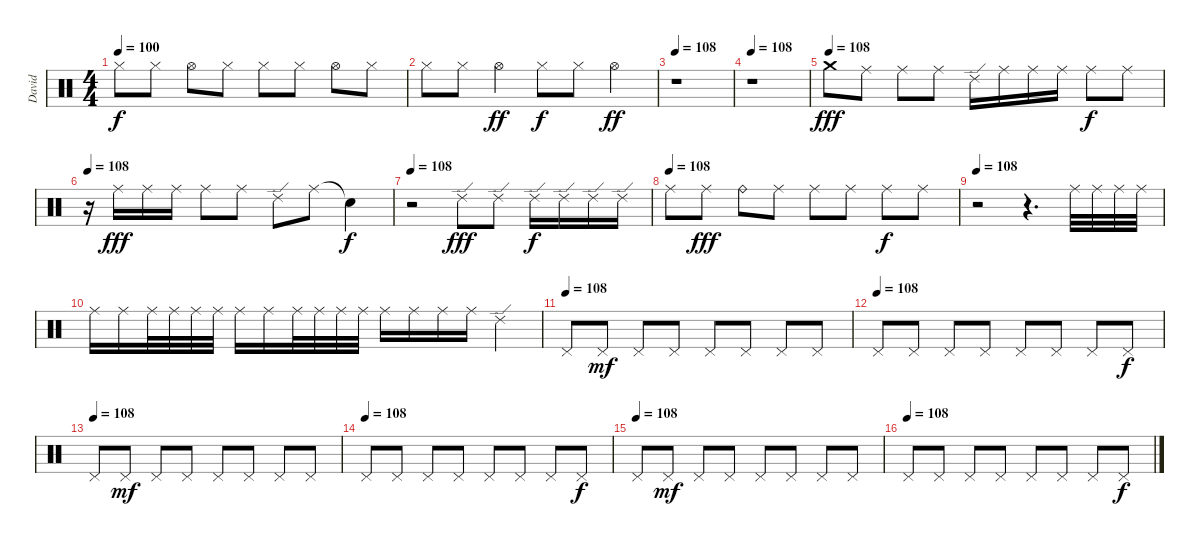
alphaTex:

\track ("David" "David") {instrument percussion}
\staff {score}
\articulation defaults
\ts (4 4)
\tempo 100
\clef neutral
\ks c "Hi-Hat (closed)".8{dy f} "Hi-Hat (closed)".8 "Hi-Hat (open)".8 "Hi-Hat (closed)".8 "Hi-Hat (closed)".8 "Hi-Hat (closed)".8 "Hi-Hat (open)".8 "Hi-Hat (closed)".8
|
"Hi-Hat (closed)".8 "Hi-Hat (closed)".8 "Hi-Hat (open)".4{dy ff} "Hi-Hat (closed)".8{dy f} "Hi-Hat (closed)".8 "Hi-Hat (open)".4{dy ff} |
\tempo 108
r.1 |
\tempo 108
r.1 |
\tempo (108)
"Crash medium (hit)".8{dy fff} "Ride (middle)".8 "Ride (middle)".8 "Ride (middle)".8 "Ride (edge) 2".16 "Ride (middle)".16 "Ride (middle)".16 "Ride (middle)".16 "Ride (middle)".8{dy f} "Ride (middle)".8 |
\tempo 108
r.16 "Ride (middle)".16{dy fff} "Ride (middle)".16 "Ride (middle)".16 "Ride (middle)".8 "Ride (middle)".8 "Ride (edge) 2".8 "Ride (middle)".8 "Snare (hit)"{t}.4{dy f} |
\tempo 108
r.2 "Ride (edge) 2".8{dy fff} "Ride (edge) 2".8 "Ride (edge) 2".16{dy f} "Ride (edge) 2".16 "Ride (edge) 2".16 "Ride (edge) 2".16 |
\tempo (108)
"Ride (middle)".8 "Ride (middle)".8{dy fff} "Ride (bell)".8 "Ride (middle)".8 "Ride (middle)".8 "Ride (middle)".8 "Ride (middle)".8{dy f} "Ride (middle)".8 |
\tempo 108
r.2 r.4{d} "Ride (middle)".32 "Ride (middle)".32 "Ride (middle)".32 "Ride (middle)".32 |
"Ride (middle)".16 "Ride (middle)".16 "Ride (middle)".32 "Ride (middle)".32 "Ride (middle)".32 "Ride (middle)".32 "Ride (middle)".16 "Ride (middle)".16 "Ride (middle)".32 "Ride (middle)".32 "Ride (middle)".32 "Ride (middle)".32 "Ride (middle)".16 "Ride (middle)".16 "Ride (middle)".16 "Ride (middle)".16 "Ride (edge) 2".4 |
\tempo (108)
"Pedal Hi-Hat (hit)".8 "Pedal Hi-Hat (hit)".8{dy mf} "Pedal Hi-Hat (hit)".8 "Pedal Hi-Hat (hit)".8 "Pedal Hi-Hat (hit)".8 "Pedal Hi-Hat (hit)".8 "Pedal Hi-Hat (hit)".8 "Pedal Hi-Hat (hit)".8 |
\tempo (108)
"Pedal Hi-Hat (hit)".8 "Pedal Hi-Hat (hit)".8 "Pedal Hi-Hat (hit)".8 "Pedal Hi-Hat (hit)".8 "Pedal Hi-Hat (hit)".8 "Pedal Hi-Hat (hit)".8 "Pedal Hi-Hat (hit)".8 "Pedal Hi-Hat (hit)".8{dy f} |
\tempo (108)
"Pedal Hi-Hat (hit)".8 "Pedal Hi-Hat (hit)".8{dy mf} "Pedal Hi-Hat (hit)".8 "Pedal Hi-Hat (hit)".8 "Pedal Hi-Hat (hit)".8 "Pedal Hi-Hat (hit)".8 "Pedal Hi-Hat (hit)".8 "Pedal Hi-Hat (hit)".8 |
\tempo (108)
"Pedal Hi-Hat (hit)".8 "Pedal Hi-Hat (hit)".8 "Pedal Hi-Hat (hit)".8 "Pedal Hi-Hat (hit)".8 "Pedal Hi-Hat (hit)".8 "Pedal Hi-Hat (hit)".8 "Pedal Hi-Hat (hit)".8 "Pedal Hi-Hat (hit)".8{dy f} |
\tempo (108)
"Pedal Hi-Hat (hit)".8 "Pedal Hi-Hat (hit)".8{dy mf} "Pedal Hi-Hat (hit)".8 "Pedal Hi-Hat (hit)".8 "Pedal Hi-Hat (hit)".8 "Pedal Hi-Hat (hit)".8 "Pedal Hi-Hat (hit)".8 "Pedal Hi-Hat (hit)".8 |
\tempo (108)
"Pedal Hi-Hat (hit)".8 "Pedal Hi-Hat (hit)".8 "Pedal Hi-Hat (hit)".8 "Pedal Hi-Hat (hit)".8 "Pedal Hi-Hat (hit)".8 "Pedal Hi-Hat (hit)".8 "Pedal Hi-Hat (hit)".8 "Pedal Hi-Hat (hit)".8{dy f}
